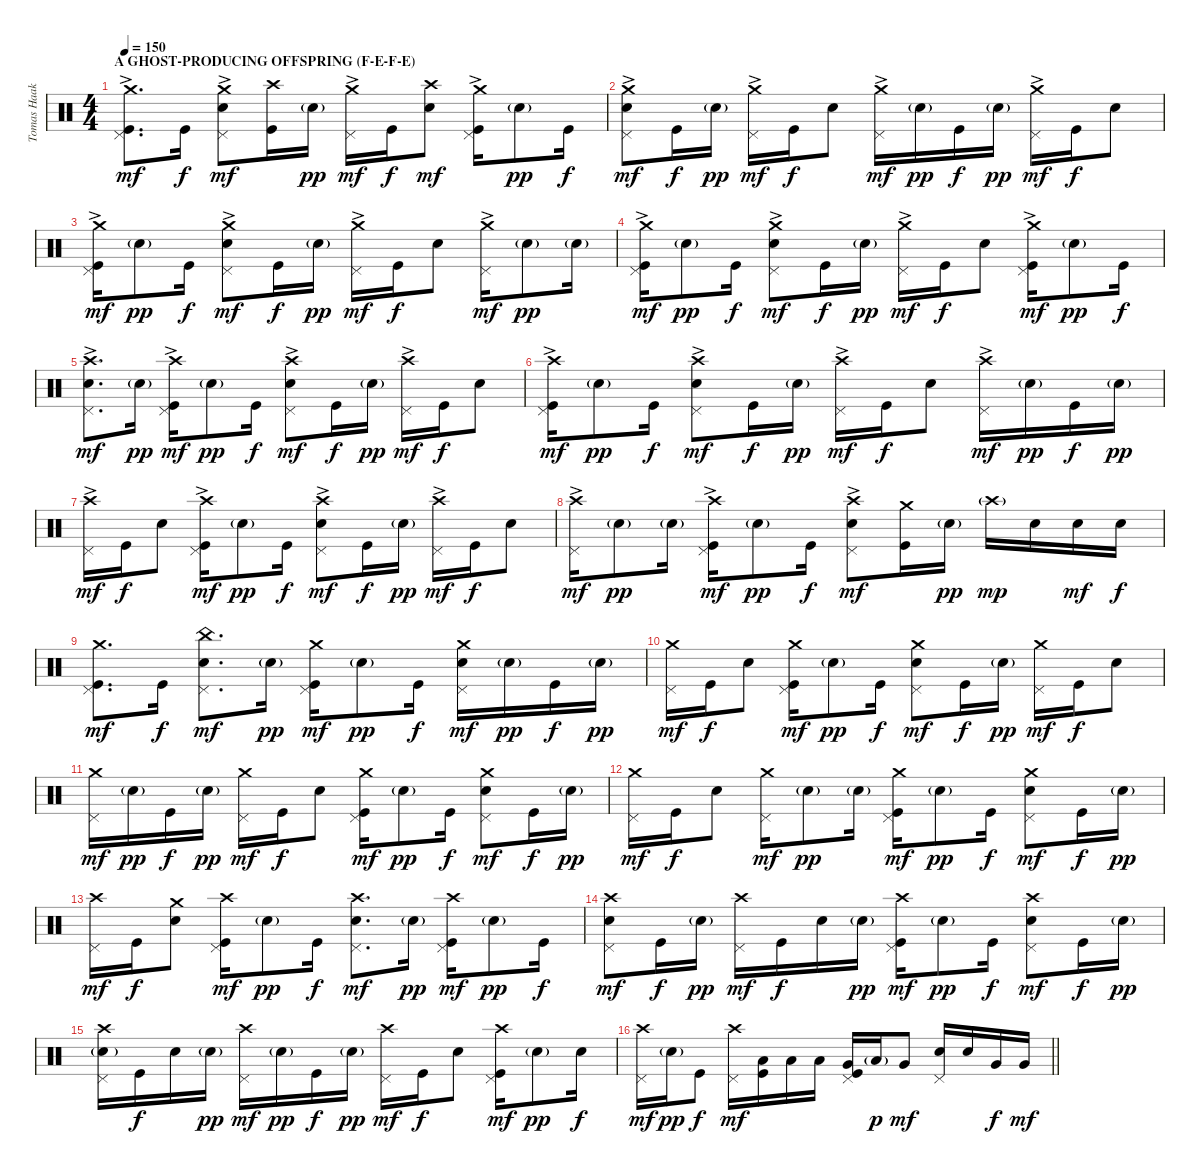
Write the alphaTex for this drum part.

\track ("Tomas Haake (Drums)" "Tomas Haak") {instrument percussion}
\staff {score}
\articulation defaults
\ts (4 4)
\section ("" "A GHOST-PRODUCING OFFSPRING (F-E-F-E)")
\tempo 150
\clef neutral
\ks c
("Crash medium (hit)"{ac} "Pedal Hi-Hat (hit)" "Kick (hit)").8{d dy mf} "Kick (hit)".16{dy f} ("Crash medium (hit)"{ac} "Pedal Hi-Hat (hit)" "Electric Snare (hit)").8{dy mf} ("Crash high (hit)" "Kick (hit)").16 "Electric Snare (hit)"{g}.16{dy pp} ("Crash medium (hit)"{ac} "Pedal Hi-Hat (hit)").16{dy mf} "Kick (hit)".16{dy f} ("Crash high (hit)" "Electric Snare (hit)").8{dy mf} ("Crash medium (hit)"{ac} "Pedal Hi-Hat (hit)" "Kick (hit)").16 "Electric Snare (hit)"{g}.8{dy pp} "Kick (hit)".16{dy f} |
("Crash medium (hit)"{ac} "Pedal Hi-Hat (hit)" "Electric Snare (hit)").8{dy mf} "Kick (hit)".16{dy f} "Electric Snare (hit)"{g}.16{dy pp} ("Crash medium (hit)"{ac} "Pedal Hi-Hat (hit)").16{dy mf} "Kick (hit)".16{dy f} "Electric Snare (hit)".8 ("Crash medium (hit)"{ac} "Pedal Hi-Hat (hit)").16{dy mf} "Electric Snare (hit)"{g}.16{dy pp} "Kick (hit)".16{dy f} "Electric Snare (hit)"{g}.16{dy pp} ("Crash medium (hit)"{ac} "Pedal Hi-Hat (hit)").16{dy mf} "Kick (hit)".16{dy f} "Electric Snare (hit)".8 |
("Crash medium (hit)"{ac} "Pedal Hi-Hat (hit)" "Kick (hit)").16{dy mf} "Electric Snare (hit)"{g}.8{dy pp} "Kick (hit)".16{dy f} ("Crash medium (hit)"{ac} "Pedal Hi-Hat (hit)" "Electric Snare (hit)").8{dy mf} "Kick (hit)".16{dy f} "Electric Snare (hit)"{g}.16{dy pp} ("Crash medium (hit)"{ac} "Pedal Hi-Hat (hit)").16{dy mf} "Kick (hit)".16{dy f} "Electric Snare (hit)".8 ("Crash medium (hit)"{ac} "Pedal Hi-Hat (hit)").16{dy mf} "Electric Snare (hit)"{g}.8{dy pp} "Electric Snare (hit)"{g}.16 |
("Crash medium (hit)"{ac} "Pedal Hi-Hat (hit)" "Kick (hit)").16{dy mf} "Electric Snare (hit)"{g}.8{dy pp} "Kick (hit)".16{dy f} ("Crash medium (hit)"{ac} "Pedal Hi-Hat (hit)" "Electric Snare (hit)").8{dy mf} "Kick (hit)".16{dy f} "Electric Snare (hit)"{g}.16{dy pp} ("Crash medium (hit)"{ac} "Pedal Hi-Hat (hit)").16{dy mf} "Kick (hit)".16{dy f} "Electric Snare (hit)".8 ("Crash medium (hit)"{ac} "Pedal Hi-Hat (hit)" "Kick (hit)").16{dy mf} "Electric Snare (hit)"{g}.8{dy pp} "Kick (hit)".16{dy f} |
("Crash high (hit)"{ac} "Pedal Hi-Hat (hit)" "Electric Snare (hit)").8{d dy mf} "Electric Snare (hit)"{g}.16{dy pp} ("Crash high (hit)"{ac} "Pedal Hi-Hat (hit)" "Kick (hit)").16{dy mf} "Electric Snare (hit)"{g}.8{dy pp} "Kick (hit)".16{dy f} ("Crash high (hit)"{ac} "Pedal Hi-Hat (hit)" "Electric Snare (hit)").8{dy mf} "Kick (hit)".16{dy f} "Electric Snare (hit)"{g}.16{dy pp} ("Crash high (hit)"{ac} "Pedal Hi-Hat (hit)").16{dy mf} "Kick (hit)".16{dy f} "Electric Snare (hit)".8 |
("Crash high (hit)"{ac} "Pedal Hi-Hat (hit)" "Kick (hit)").16{dy mf} "Electric Snare (hit)"{g}.8{dy pp} "Kick (hit)".16{dy f} ("Crash high (hit)"{ac} "Pedal Hi-Hat (hit)" "Electric Snare (hit)").8{dy mf} "Kick (hit)".16{dy f} "Electric Snare (hit)"{g}.16{dy pp} ("Crash high (hit)"{ac} "Pedal Hi-Hat (hit)").16{dy mf} "Kick (hit)".16{dy f} "Electric Snare (hit)".8 ("Crash high (hit)"{ac} "Pedal Hi-Hat (hit)").16{dy mf} "Electric Snare (hit)"{g}.16{dy pp} "Kick (hit)".16{dy f} "Electric Snare (hit)"{g}.16{dy pp} |
("Crash high (hit)"{ac} "Pedal Hi-Hat (hit)").16{dy mf} "Kick (hit)".16{dy f} "Electric Snare (hit)".8 ("Crash high (hit)"{ac} "Pedal Hi-Hat (hit)" "Kick (hit)").16{dy mf} "Electric Snare (hit)"{g}.8{dy pp} "Kick (hit)".16{dy f} ("Crash high (hit)"{ac} "Pedal Hi-Hat (hit)" "Electric Snare (hit)").8{dy mf} "Kick (hit)".16{dy f} "Electric Snare (hit)"{g}.16{dy pp} ("Crash high (hit)"{ac} "Pedal Hi-Hat (hit)").16{dy mf} "Kick (hit)".16{dy f} "Electric Snare (hit)".8 |
("Crash high (hit)"{ac} "Pedal Hi-Hat (hit)").16{dy mf} "Electric Snare (hit)"{g}.8{dy pp} "Electric Snare (hit)"{g}.16 ("Crash high (hit)"{ac} "Pedal Hi-Hat (hit)" "Kick (hit)").16{dy mf} "Electric Snare (hit)"{g}.8{dy pp} "Kick (hit)".16{dy f} ("Crash high (hit)"{ac} "Pedal Hi-Hat (hit)" "Electric Snare (hit)").8{dy mf} ("Crash medium (hit)" "Kick (hit)").16 "Electric Snare (hit)"{g}.16{dy pp} "Crash high (hit)"{g}.16{dy mp} "Electric Snare (hit)".16 "Electric Snare (hit)".16{dy mf} "Electric Snare (hit)".16{dy f} |
("Crash medium (hit)" "Pedal Hi-Hat (hit)" "Kick (hit)").8{d dy mf} "Kick (hit)".16{dy f} ("China (hit)" "Pedal Hi-Hat (hit)" "Electric Snare (hit)").8{d dy mf} "Electric Snare (hit)"{g}.16{dy pp} ("Crash medium (hit)" "Pedal Hi-Hat (hit)" "Kick (hit)").16{dy mf} "Electric Snare (hit)"{g}.8{dy pp} "Kick (hit)".16{dy f} ("Crash medium (hit)" "Pedal Hi-Hat (hit)" "Electric Snare (hit)").16{dy mf} "Electric Snare (hit)"{g}.16{dy pp} "Kick (hit)".16{dy f} "Electric Snare (hit)"{g}.16{dy pp} |
("Crash medium (hit)" "Pedal Hi-Hat (hit)").16{dy mf} "Kick (hit)".16{dy f} "Electric Snare (hit)".8 ("Crash medium (hit)" "Pedal Hi-Hat (hit)" "Kick (hit)").16{dy mf} "Electric Snare (hit)"{g}.8{dy pp} "Kick (hit)".16{dy f} ("Crash medium (hit)" "Pedal Hi-Hat (hit)" "Electric Snare (hit)").8{dy mf} "Kick (hit)".16{dy f} "Electric Snare (hit)"{g}.16{dy pp} ("Crash medium (hit)" "Pedal Hi-Hat (hit)").16{dy mf} "Kick (hit)".16{dy f} "Electric Snare (hit)".8 |
("Crash medium (hit)" "Pedal Hi-Hat (hit)").16{dy mf} "Electric Snare (hit)"{g}.16{dy pp} "Kick (hit)".16{dy f} "Electric Snare (hit)"{g}.16{dy pp} ("Crash medium (hit)" "Pedal Hi-Hat (hit)").16{dy mf} "Kick (hit)".16{dy f} "Electric Snare (hit)".8 ("Crash medium (hit)" "Pedal Hi-Hat (hit)" "Kick (hit)").16{dy mf} "Electric Snare (hit)"{g}.8{dy pp} "Kick (hit)".16{dy f} ("Crash medium (hit)" "Pedal Hi-Hat (hit)" "Electric Snare (hit)").8{dy mf} "Kick (hit)".16{dy f} "Electric Snare (hit)"{g}.16{dy pp} |
("Crash medium (hit)" "Pedal Hi-Hat (hit)").16{dy mf} "Kick (hit)".16{dy f} "Electric Snare (hit)".8 ("Crash medium (hit)" "Pedal Hi-Hat (hit)").16{dy mf} "Electric Snare (hit)"{g}.8{dy pp} "Electric Snare (hit)"{g}.16 ("Crash medium (hit)" "Pedal Hi-Hat (hit)" "Kick (hit)").16{dy mf} "Electric Snare (hit)"{g}.8{dy pp} "Kick (hit)".16{dy f} ("Crash medium (hit)" "Pedal Hi-Hat (hit)" "Electric Snare (hit)").8{dy mf} "Kick (hit)".16{dy f} "Electric Snare (hit)"{g}.16{dy pp} |
("Crash high (hit)" "Pedal Hi-Hat (hit)").16{dy mf} "Kick (hit)".16{dy f} ("Crash medium (hit)" "Electric Snare (hit)").8 ("Crash high (hit)" "Pedal Hi-Hat (hit)" "Kick (hit)").16{dy mf} "Electric Snare (hit)"{g}.8{dy pp} "Kick (hit)".16{dy f} ("Crash high (hit)" "Pedal Hi-Hat (hit)" "Electric Snare (hit)").8{d dy mf} "Electric Snare (hit)"{g}.16{dy pp} ("Crash high (hit)" "Pedal Hi-Hat (hit)" "Kick (hit)").16{dy mf} "Electric Snare (hit)"{g}.8{dy pp} "Kick (hit)".16{dy f} |
("Crash high (hit)" "Pedal Hi-Hat (hit)" "Electric Snare (hit)").8{dy mf} "Kick (hit)".16{dy f} "Electric Snare (hit)"{g}.16{dy pp} ("Crash high (hit)" "Pedal Hi-Hat (hit)").16{dy mf} "Kick (hit)".16{dy f} "Electric Snare (hit)".16 "Electric Snare (hit)"{g}.16{dy pp} ("Crash high (hit)" "Pedal Hi-Hat (hit)" "Kick (hit)").16{dy mf} "Electric Snare (hit)"{g}.8{dy pp} "Kick (hit)".16{dy f} ("Crash high (hit)" "Pedal Hi-Hat (hit)" "Electric Snare (hit)").8{dy mf} "Kick (hit)".16{dy f} "Electric Snare (hit)"{g}.16{dy pp} |
("Crash high (hit)" "Pedal Hi-Hat (hit)" "Electric Snare (hit)"{g}).16 "Kick (hit)".16{dy f} "Electric Snare (hit)".16 "Electric Snare (hit)"{g}.16{dy pp} ("Crash high (hit)" "Pedal Hi-Hat (hit)").16{dy mf} "Electric Snare (hit)"{g}.16{dy pp} "Kick (hit)".16{dy f} "Electric Snare (hit)"{g}.16{dy pp} ("Crash high (hit)" "Pedal Hi-Hat (hit)").16{dy mf} "Kick (hit)".16{dy f} "Electric Snare (hit)".8 ("Crash high (hit)" "Pedal Hi-Hat (hit)" "Kick (hit)").16{dy mf} "Electric Snare (hit)"{g}.8{dy pp} "Electric Snare (hit)".16{dy f} |
\barLineRight lightlight
("Crash high (hit)" "Pedal Hi-Hat (hit)").16{dy mf} "Electric Snare (hit)"{g}.16{dy pp} "Kick (hit)".8{dy f} ("Crash high (hit)" "Pedal Hi-Hat (hit)").16{dy mf} ("Low Tom (hit)" "Kick (hit)").16 "Low Tom (hit)".16 "Low Tom (hit)".16 ("Pedal Hi-Hat (hit)" "Very Low Tom (hit)" "Kick (hit)").16 "Low Tom (hit)"{g}.16{dy p} "Very Low Tom (hit)".8{dy mf} ("Pedal Hi-Hat (hit)" "Electric Snare (hit)").16 "Electric Snare (hit)".16 "Very Low Tom (hit)".16{dy f} "Very Low Tom (hit)".16{dy mf}
